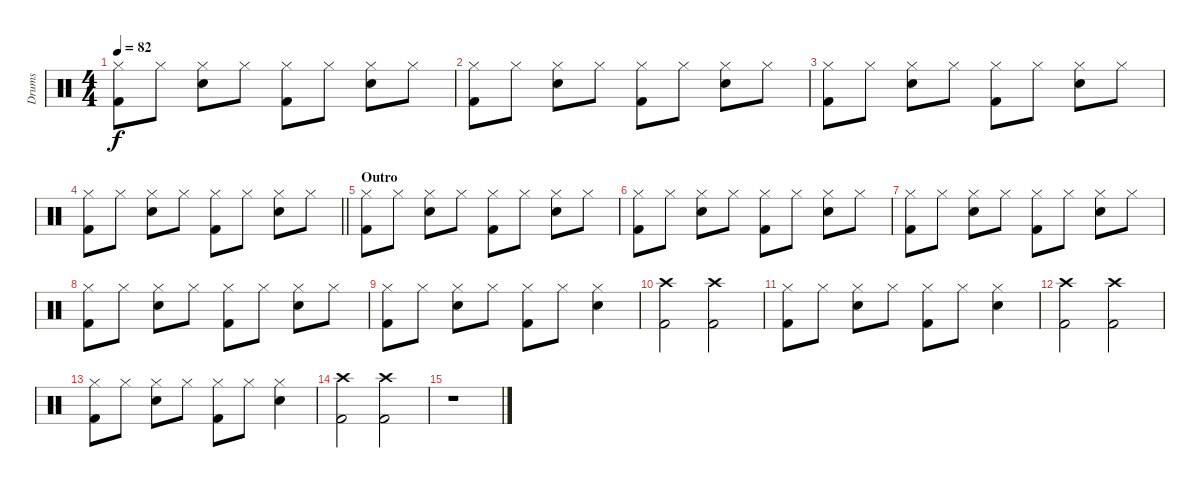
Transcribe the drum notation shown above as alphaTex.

\track ("Drums" "Drums") {instrument percussion}
\staff {score}
\articulation defaults
\ts (4 4)
\tempo 82
\clef neutral
\ks c
("Hi-Hat (closed)" "Kick (hit) 2").8{dy f} "Hi-Hat (closed)".8 ("Hi-Hat (closed)" "Snare (hit) 2").8 "Hi-Hat (closed)".8 ("Hi-Hat (closed)" "Kick (hit) 2").8 "Hi-Hat (closed)".8 ("Hi-Hat (closed)" "Snare (hit) 2").8 "Hi-Hat (closed)".8 |
("Hi-Hat (closed)" "Kick (hit) 2").8 "Hi-Hat (closed)".8 ("Hi-Hat (closed)" "Snare (hit) 2").8 "Hi-Hat (closed)".8 ("Hi-Hat (closed)" "Kick (hit) 2").8 "Hi-Hat (closed)".8 ("Hi-Hat (closed)" "Snare (hit) 2").8 "Hi-Hat (closed)".8 |
("Hi-Hat (closed)" "Kick (hit) 2").8 "Hi-Hat (closed)".8 ("Hi-Hat (closed)" "Snare (hit) 2").8 "Hi-Hat (closed)".8 ("Hi-Hat (closed)" "Kick (hit) 2").8 "Hi-Hat (closed)".8 ("Hi-Hat (closed)" "Snare (hit) 2").8 "Hi-Hat (closed)".8 |
\barLineRight lightlight
("Hi-Hat (closed)" "Kick (hit) 2").8 "Hi-Hat (closed)".8 ("Hi-Hat (closed)" "Snare (hit) 2").8 "Hi-Hat (closed)".8 ("Hi-Hat (closed)" "Kick (hit) 2").8 "Hi-Hat (closed)".8 ("Hi-Hat (closed)" "Snare (hit) 2").8 "Hi-Hat (closed)".8 |
\section ("" "Outro")
("Hi-Hat (closed)" "Kick (hit) 2").8 "Hi-Hat (closed)".8 ("Hi-Hat (closed)" "Snare (hit) 2").8 "Hi-Hat (closed)".8 ("Hi-Hat (closed)" "Kick (hit) 2").8 "Hi-Hat (closed)".8 ("Hi-Hat (closed)" "Snare (hit) 2").8 "Hi-Hat (closed)".8 |
("Hi-Hat (closed)" "Kick (hit) 2").8 "Hi-Hat (closed)".8 ("Hi-Hat (closed)" "Snare (hit) 2").8 "Hi-Hat (closed)".8 ("Hi-Hat (closed)" "Kick (hit) 2").8 "Hi-Hat (closed)".8 ("Hi-Hat (closed)" "Snare (hit) 2").8 "Hi-Hat (closed)".8 |
("Hi-Hat (closed)" "Kick (hit) 2").8 "Hi-Hat (closed)".8 ("Hi-Hat (closed)" "Snare (hit) 2").8 "Hi-Hat (closed)".8 ("Hi-Hat (closed)" "Kick (hit) 2").8 "Hi-Hat (closed)".8 ("Hi-Hat (closed)" "Snare (hit) 2").8 "Hi-Hat (closed)".8 |
("Hi-Hat (closed)" "Kick (hit) 2").8 "Hi-Hat (closed)".8 ("Hi-Hat (closed)" "Snare (hit) 2").8 "Hi-Hat (closed)".8 ("Hi-Hat (closed)" "Kick (hit) 2").8 "Hi-Hat (closed)".8 ("Hi-Hat (closed)" "Snare (hit) 2").8 "Hi-Hat (closed)".8 |
("Hi-Hat (closed)" "Kick (hit) 2").8 "Hi-Hat (closed)".8 ("Hi-Hat (closed)" "Snare (hit) 2").8 "Hi-Hat (closed)".8 ("Hi-Hat (closed)" "Kick (hit) 2").8 "Hi-Hat (closed)".8 ("Hi-Hat (closed)" "Snare (hit) 2").4 |
("Kick (hit) 2" "Crash high (hit)").2 ("Kick (hit) 2" "Crash high (hit)").2 |
("Hi-Hat (closed)" "Kick (hit) 2").8 "Hi-Hat (closed)".8 ("Hi-Hat (closed)" "Snare (hit) 2").8 "Hi-Hat (closed)".8 ("Hi-Hat (closed)" "Kick (hit) 2").8 "Hi-Hat (closed)".8 ("Hi-Hat (closed)" "Snare (hit) 2").4 |
("Kick (hit) 2" "Crash high (hit)").2 ("Kick (hit) 2" "Crash high (hit)").2 |
("Hi-Hat (closed)" "Kick (hit) 2").8 "Hi-Hat (closed)".8 ("Hi-Hat (closed)" "Snare (hit) 2").8 "Hi-Hat (closed)".8 ("Hi-Hat (closed)" "Kick (hit) 2").8 "Hi-Hat (closed)".8 ("Hi-Hat (closed)" "Snare (hit) 2").4 |
("Kick (hit) 2" "Crash high (hit)").2 ("Kick (hit) 2" "Crash high (hit)").2 |
r.1
